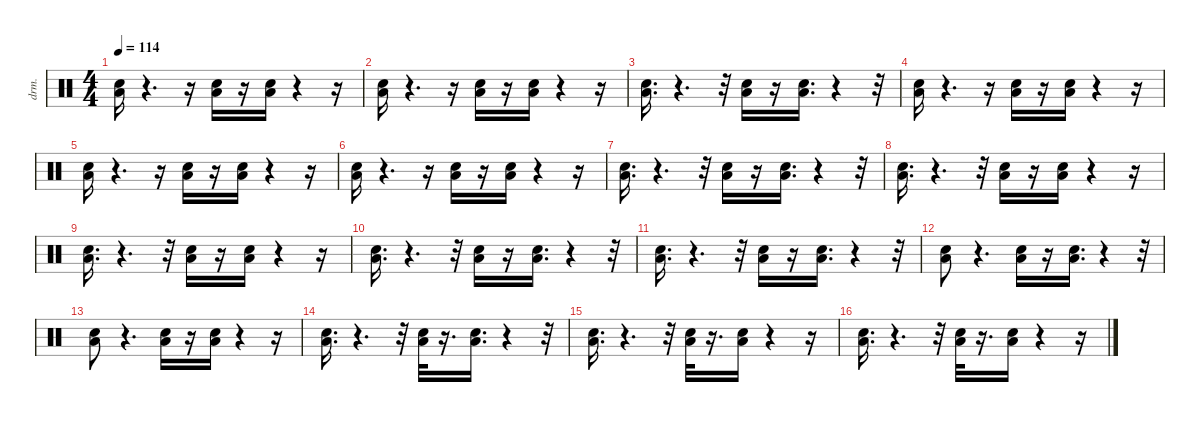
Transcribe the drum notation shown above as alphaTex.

\defaultSystemsLayout 4
\hideDynamics
\bracketExtendMode nobrackets
\otherSystemsTrackNameOrientation horizontal
\track ("Taiko drum" "drm.") {instrument percussion}
\staff {score}
\articulation defaults
\ts (4 4)
\tempo 114
\clef neutral
\ks c
("Low Floor Tom (hit)" "Snare (hit) 2").16{dy fff} r.4{d} r.16 ("Low Floor Tom (hit)" "Snare (hit) 2").16 r.16 ("Low Floor Tom (hit)" "Snare (hit) 2").16 r.4 r.16 |
("Low Floor Tom (hit)" "Snare (hit) 2").16 r.4{d} r.16 ("Low Floor Tom (hit)" "Snare (hit) 2").16{dy ff} r.16 ("Low Floor Tom (hit)" "Snare (hit) 2").16{dy fff} r.4 r.16 |
("Low Floor Tom (hit)" "Snare (hit) 2").16{d} r.4{d} r.32 ("Low Floor Tom (hit)" "Snare (hit) 2").16 r.16 ("Low Floor Tom (hit)" "Snare (hit) 2").16{d} r.4 r.32 |
("Low Floor Tom (hit)" "Snare (hit) 2").16 r.4{d} r.16 ("Low Floor Tom (hit)" "Snare (hit) 2").16 r.16 ("Low Floor Tom (hit)" "Snare (hit) 2").16 r.4 r.16 |
("Low Floor Tom (hit)" "Snare (hit) 2").16 r.4{d} r.16 ("Low Floor Tom (hit)" "Snare (hit) 2").16 r.16 ("Low Floor Tom (hit)" "Snare (hit) 2").16 r.4 r.16 |
("Low Floor Tom (hit)" "Snare (hit) 2").16 r.4{d} r.16 ("Low Floor Tom (hit)" "Snare (hit) 2").16 r.16 ("Low Floor Tom (hit)" "Snare (hit) 2").16 r.4 r.16 |
("Low Floor Tom (hit)" "Snare (hit) 2").16{d} r.4{d} r.32 ("Low Floor Tom (hit)" "Snare (hit) 2").16 r.16 ("Low Floor Tom (hit)" "Snare (hit) 2").16{d} r.4 r.32 |
("Low Floor Tom (hit)" "Snare (hit) 2").16{d} r.4{d} r.32 ("Low Floor Tom (hit)" "Snare (hit) 2").16 r.16 ("Low Floor Tom (hit)" "Snare (hit) 2").16 r.4 r.16 |
("Low Floor Tom (hit)" "Snare (hit) 2").16{d} r.4{d} r.32 ("Low Floor Tom (hit)" "Snare (hit) 2").16 r.16 ("Low Floor Tom (hit)" "Snare (hit) 2").16 r.4 r.16 |
("Low Floor Tom (hit)" "Snare (hit) 2").16{d} r.4{d} r.32 ("Low Floor Tom (hit)" "Snare (hit) 2").16 r.16 ("Low Floor Tom (hit)" "Snare (hit) 2").16{d} r.4 r.32 |
("Low Floor Tom (hit)" "Snare (hit) 2").16{d} r.4{d} r.32 ("Low Floor Tom (hit)" "Snare (hit) 2").16 r.16 ("Low Floor Tom (hit)" "Snare (hit) 2").16{d} r.4 r.32 |
("Low Floor Tom (hit)" "Snare (hit) 2").8 r.4{d} ("Low Floor Tom (hit)" "Snare (hit) 2").16 r.16 ("Low Floor Tom (hit)" "Snare (hit) 2").16{d} r.4 r.32 |
("Low Floor Tom (hit)" "Snare (hit) 2").8 r.4{d} ("Low Floor Tom (hit)" "Snare (hit) 2").16 r.16 ("Snare (hit) 2" "Low Floor Tom (hit)").16 r.4 r.16 |
("Snare (hit) 2" "Low Floor Tom (hit)").16{d} r.4{d} r.32 ("Low Floor Tom (hit)" "Snare (hit) 2").32 r.16{d} ("Snare (hit) 2" "Low Floor Tom (hit)").16{d} r.4 r.32 |
("Low Floor Tom (hit)" "Snare (hit) 2").16{d} r.4{d} r.32 ("Low Floor Tom (hit)" "Snare (hit) 2").32 r.16{d} ("Low Floor Tom (hit)" "Snare (hit) 2").16 r.4 r.16 |
("Snare (hit) 2" "Low Floor Tom (hit)").16{d} r.4{d} r.32 ("Snare (hit) 2" "Low Floor Tom (hit)").32 r.16{d} ("Snare (hit) 2" "Low Floor Tom (hit)").16 r.4 r.16
